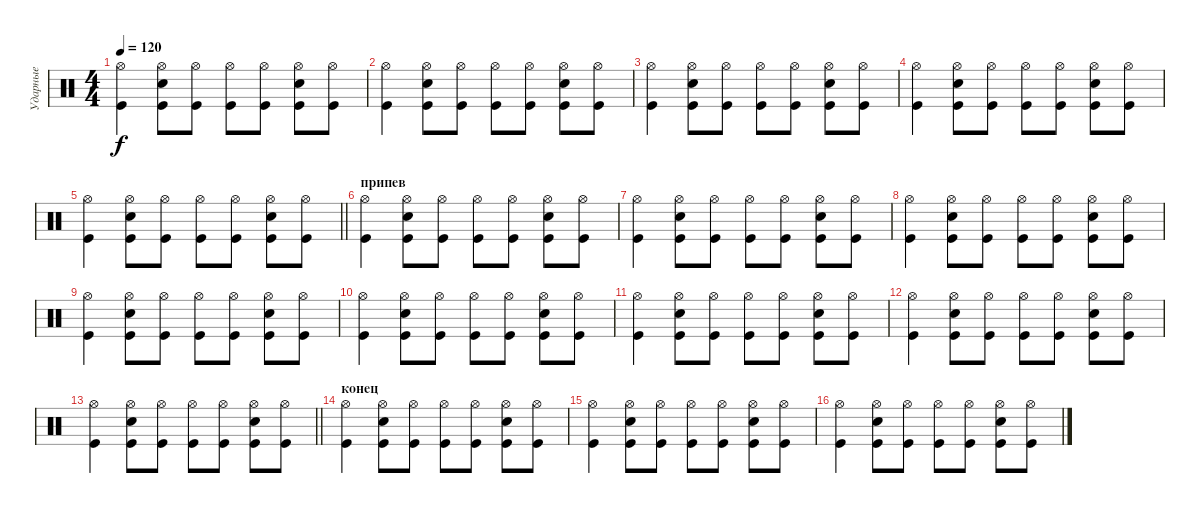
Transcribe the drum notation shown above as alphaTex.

\track ("Ударные" "Ударные") {instrument percussion}
\staff {score}
\articulation defaults
\ts (4 4)
\tempo 120
\clef neutral
\ks c
("Hi-Hat (open)" "Kick (hit)").4{dy f} ("Hi-Hat (open)" "Snare (hit) 2" "Kick (hit)").8 ("Hi-Hat (open)" "Kick (hit)").8 ("Hi-Hat (open)" "Kick (hit)").8 ("Hi-Hat (open)" "Kick (hit)").8 ("Hi-Hat (open)" "Snare (hit) 2" "Kick (hit)").8 ("Hi-Hat (open)" "Kick (hit)").8 |
("Hi-Hat (open)" "Kick (hit)").4 ("Hi-Hat (open)" "Snare (hit) 2" "Kick (hit)").8 ("Hi-Hat (open)" "Kick (hit)").8 ("Hi-Hat (open)" "Kick (hit)").8 ("Hi-Hat (open)" "Kick (hit)").8 ("Hi-Hat (open)" "Snare (hit) 2" "Kick (hit)").8 ("Hi-Hat (open)" "Kick (hit)").8 |
("Hi-Hat (open)" "Kick (hit)").4 ("Hi-Hat (open)" "Snare (hit) 2" "Kick (hit)").8 ("Hi-Hat (open)" "Kick (hit)").8 ("Hi-Hat (open)" "Kick (hit)").8 ("Hi-Hat (open)" "Kick (hit)").8 ("Hi-Hat (open)" "Snare (hit) 2" "Kick (hit)").8 ("Hi-Hat (open)" "Kick (hit)").8 |
("Hi-Hat (open)" "Kick (hit)").4 ("Hi-Hat (open)" "Snare (hit) 2" "Kick (hit)").8 ("Hi-Hat (open)" "Kick (hit)").8 ("Hi-Hat (open)" "Kick (hit)").8 ("Hi-Hat (open)" "Kick (hit)").8 ("Hi-Hat (open)" "Snare (hit) 2" "Kick (hit)").8 ("Hi-Hat (open)" "Kick (hit)").8 |
\barLineRight lightlight
("Hi-Hat (open)" "Kick (hit)").4 ("Hi-Hat (open)" "Snare (hit) 2" "Kick (hit)").8 ("Hi-Hat (open)" "Kick (hit)").8 ("Hi-Hat (open)" "Kick (hit)").8 ("Hi-Hat (open)" "Kick (hit)").8 ("Hi-Hat (open)" "Snare (hit) 2" "Kick (hit)").8 ("Hi-Hat (open)" "Kick (hit)").8 |
\section ("" "припев")
("Hi-Hat (open)" "Kick (hit)").4 ("Hi-Hat (open)" "Snare (hit) 2" "Kick (hit)").8 ("Hi-Hat (open)" "Kick (hit)").8 ("Hi-Hat (open)" "Kick (hit)").8 ("Hi-Hat (open)" "Kick (hit)").8 ("Hi-Hat (open)" "Snare (hit) 2" "Kick (hit)").8 ("Hi-Hat (open)" "Kick (hit)").8 |
("Hi-Hat (open)" "Kick (hit)").4 ("Hi-Hat (open)" "Snare (hit) 2" "Kick (hit)").8 ("Hi-Hat (open)" "Kick (hit)").8 ("Hi-Hat (open)" "Kick (hit)").8 ("Hi-Hat (open)" "Kick (hit)").8 ("Hi-Hat (open)" "Snare (hit) 2" "Kick (hit)").8 ("Hi-Hat (open)" "Kick (hit)").8 |
("Hi-Hat (open)" "Kick (hit)").4 ("Hi-Hat (open)" "Snare (hit) 2" "Kick (hit)").8 ("Hi-Hat (open)" "Kick (hit)").8 ("Hi-Hat (open)" "Kick (hit)").8 ("Hi-Hat (open)" "Kick (hit)").8 ("Hi-Hat (open)" "Snare (hit) 2" "Kick (hit)").8 ("Hi-Hat (open)" "Kick (hit)").8 |
("Hi-Hat (open)" "Kick (hit)").4 ("Hi-Hat (open)" "Snare (hit) 2" "Kick (hit)").8 ("Hi-Hat (open)" "Kick (hit)").8 ("Hi-Hat (open)" "Kick (hit)").8 ("Hi-Hat (open)" "Kick (hit)").8 ("Hi-Hat (open)" "Snare (hit) 2" "Kick (hit)").8 ("Hi-Hat (open)" "Kick (hit)").8 |
("Hi-Hat (open)" "Kick (hit)").4 ("Hi-Hat (open)" "Snare (hit) 2" "Kick (hit)").8 ("Hi-Hat (open)" "Kick (hit)").8 ("Hi-Hat (open)" "Kick (hit)").8 ("Hi-Hat (open)" "Kick (hit)").8 ("Hi-Hat (open)" "Snare (hit) 2" "Kick (hit)").8 ("Hi-Hat (open)" "Kick (hit)").8 |
("Hi-Hat (open)" "Kick (hit)").4 ("Hi-Hat (open)" "Snare (hit) 2" "Kick (hit)").8 ("Hi-Hat (open)" "Kick (hit)").8 ("Hi-Hat (open)" "Kick (hit)").8 ("Hi-Hat (open)" "Kick (hit)").8 ("Hi-Hat (open)" "Snare (hit) 2" "Kick (hit)").8 ("Hi-Hat (open)" "Kick (hit)").8 |
("Hi-Hat (open)" "Kick (hit)").4 ("Hi-Hat (open)" "Snare (hit) 2" "Kick (hit)").8 ("Hi-Hat (open)" "Kick (hit)").8 ("Hi-Hat (open)" "Kick (hit)").8 ("Hi-Hat (open)" "Kick (hit)").8 ("Hi-Hat (open)" "Snare (hit) 2" "Kick (hit)").8 ("Hi-Hat (open)" "Kick (hit)").8 |
\barLineRight lightlight
("Hi-Hat (open)" "Kick (hit)").4 ("Hi-Hat (open)" "Snare (hit) 2" "Kick (hit)").8 ("Hi-Hat (open)" "Kick (hit)").8 ("Hi-Hat (open)" "Kick (hit)").8 ("Hi-Hat (open)" "Kick (hit)").8 ("Hi-Hat (open)" "Snare (hit) 2" "Kick (hit)").8 ("Hi-Hat (open)" "Kick (hit)").8 |
\section ("" "конец")
("Hi-Hat (open)" "Kick (hit)").4 ("Hi-Hat (open)" "Snare (hit) 2" "Kick (hit)").8 ("Hi-Hat (open)" "Kick (hit)").8 ("Hi-Hat (open)" "Kick (hit)").8 ("Hi-Hat (open)" "Kick (hit)").8 ("Hi-Hat (open)" "Snare (hit) 2" "Kick (hit)").8 ("Hi-Hat (open)" "Kick (hit)").8 |
("Hi-Hat (open)" "Kick (hit)").4 ("Hi-Hat (open)" "Snare (hit) 2" "Kick (hit)").8 ("Hi-Hat (open)" "Kick (hit)").8 ("Hi-Hat (open)" "Kick (hit)").8 ("Hi-Hat (open)" "Kick (hit)").8 ("Hi-Hat (open)" "Snare (hit) 2" "Kick (hit)").8 ("Hi-Hat (open)" "Kick (hit)").8 |
("Hi-Hat (open)" "Kick (hit)").4 ("Hi-Hat (open)" "Snare (hit) 2" "Kick (hit)").8 ("Hi-Hat (open)" "Kick (hit)").8 ("Hi-Hat (open)" "Kick (hit)").8 ("Hi-Hat (open)" "Kick (hit)").8 ("Hi-Hat (open)" "Snare (hit) 2" "Kick (hit)").8 ("Hi-Hat (open)" "Kick (hit)").8
